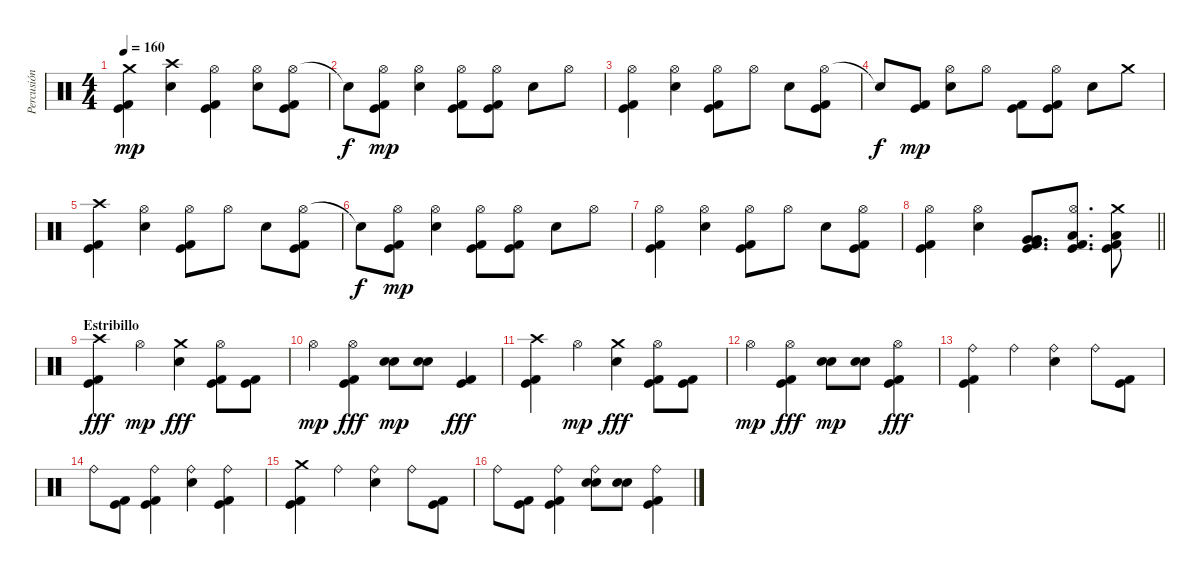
\track ("Percusión" "Percusión") {instrument percussion}
\staff {score}
\articulation defaults
\ts (4 4)
\tempo 160
\clef neutral
\ks c
("Crash medium (hit)" "Kick (hit)" "Kick (hit) 2").4{dy mp} ("Crash high (hit)" "Electric Snare (hit)").4 ("Hi-Hat (open)" "Kick (hit)" "Kick (hit) 2").4 ("Hi-Hat (open)" "Electric Snare (hit)").8 ("Hi-Hat (open)" "Kick (hit)" "Kick (hit) 2").8 |
"Snare (hit)"{t}.8{dy f} ("Hi-Hat (open)" "Kick (hit)" "Kick (hit) 2").8{dy mp} ("Hi-Hat (open)" "Electric Snare (hit)").4 ("Hi-Hat (open)" "Kick (hit)" "Kick (hit) 2").8 ("Hi-Hat (open)" "Kick (hit)" "Kick (hit) 2").8 "Electric Snare (hit)".8 "Hi-Hat (open)".8 |
("Hi-Hat (open)" "Kick (hit)" "Kick (hit) 2").4 ("Hi-Hat (open)" "Electric Snare (hit)").4 ("Hi-Hat (open)" "Kick (hit)" "Kick (hit) 2").8 "Hi-Hat (open)".8 "Electric Snare (hit)".8 ("Hi-Hat (open)" "Kick (hit)" "Kick (hit) 2").8 |
"Snare (hit)"{t}.8{dy f} ("Kick (hit)" "Kick (hit) 2").8{dy mp} ("Hi-Hat (open)" "Electric Snare (hit)").8 "Hi-Hat (open)".8 ("Kick (hit)" "Kick (hit) 2").8 ("Hi-Hat (open)" "Kick (hit)" "Kick (hit) 2").8 "Electric Snare (hit)".8 "Crash medium (hit)".8 |
("Crash high (hit)" "Kick (hit)" "Kick (hit) 2").4 ("Hi-Hat (open)" "Electric Snare (hit)").4 ("Hi-Hat (open)" "Kick (hit)" "Kick (hit) 2").8 "Hi-Hat (open)".8 "Electric Snare (hit)".8 ("Hi-Hat (open)" "Kick (hit)" "Kick (hit) 2").8 |
"Snare (hit)"{t}.8{dy f} ("Hi-Hat (open)" "Kick (hit)" "Kick (hit) 2").8{dy mp} ("Hi-Hat (open)" "Electric Snare (hit)").4 ("Hi-Hat (open)" "Kick (hit)" "Kick (hit) 2").8 ("Hi-Hat (open)" "Kick (hit)" "Kick (hit) 2").8 "Electric Snare (hit)".8 "Hi-Hat (open)".8 |
("Hi-Hat (open)" "Kick (hit)" "Kick (hit) 2").4 ("Hi-Hat (open)" "Electric Snare (hit)").4 ("Hi-Hat (open)" "Kick (hit)" "Kick (hit) 2").8 "Hi-Hat (open)".8 "Electric Snare (hit)".8 ("Hi-Hat (open)" "Kick (hit)" "Kick (hit) 2").8 |
\barLineRight lightlight
("Hi-Hat (open)" "Kick (hit)" "Kick (hit) 2").4 ("Hi-Hat (open)" "Electric Snare (hit)").4 ("Very Low Tom (hit)" "Very Low Tom (hit)" "Kick (hit)" "Kick (hit) 2").8{d} ("Hi-Hat (open)" "Low Tom (hit)" "Kick (hit)" "Kick (hit) 2").8{d} ("Crash medium (hit)" "Low Tom (hit)" "Kick (hit)" "Kick (hit) 2").8 |
\section ("" "Estribillo")
("Crash high (hit)" "Kick (hit)" "Kick (hit) 2").4{dy fff} "Hi-Hat (open)".4{dy mp} ("Crash medium (hit)" "Electric Snare (hit)").4{dy fff} ("Hi-Hat (open)" "Kick (hit)" "Kick (hit) 2").8 ("Kick (hit)" "Kick (hit) 2").8 |
"Hi-Hat (open)".4{dy mp} ("Hi-Hat (open)" "Kick (hit)" "Kick (hit) 2").4{dy fff} ("Electric Snare (hit)" "Electric Snare (hit)").8{dy mp} ("Electric Snare (hit)" "Electric Snare (hit)").8 ("Kick (hit)" "Kick (hit) 2").4{dy fff} |
("Crash high (hit)" "Kick (hit)" "Kick (hit) 2").4 "Hi-Hat (open)".4{dy mp} ("Crash medium (hit)" "Electric Snare (hit)").4{dy fff} ("Hi-Hat (open)" "Kick (hit)" "Kick (hit) 2").8 ("Kick (hit)" "Kick (hit) 2").8 |
"Hi-Hat (open)".4{dy mp} ("Hi-Hat (open)" "Kick (hit)" "Kick (hit) 2").4{dy fff} ("Electric Snare (hit)" "Electric Snare (hit)").8{dy mp} ("Electric Snare (hit)" "Electric Snare (hit)").8 ("Hi-Hat (open)" "Kick (hit)" "Kick (hit) 2").4{dy fff} |
("Ride (bell)" "Kick (hit)" "Kick (hit) 2").4 "Ride (bell)".4 ("Ride (bell)" "Electric Snare (hit)").4 "Ride (bell)".8 ("Kick (hit)" "Kick (hit) 2").8 |
"Ride (bell)".8 ("Kick (hit)" "Kick (hit) 2").8 ("Ride (bell)" "Kick (hit)" "Kick (hit) 2").4 ("Ride (bell)" "Electric Snare (hit)").4 ("Ride (bell)" "Kick (hit)" "Kick (hit) 2").4 |
("Crash medium (hit)" "Kick (hit)" "Kick (hit) 2").4 "Ride (bell)".4 ("Ride (bell)" "Electric Snare (hit)").4 "Ride (bell)".8 ("Kick (hit)" "Kick (hit) 2").8 |
"Ride (bell)".8 ("Kick (hit)" "Kick (hit) 2").8 ("Ride (bell)" "Kick (hit)" "Kick (hit) 2").4 ("Ride (bell)" "Electric Snare (hit)" "Electric Snare (hit)").8 ("Electric Snare (hit)" "Electric Snare (hit)").8 ("Ride (bell)" "Kick (hit)" "Kick (hit) 2").4
